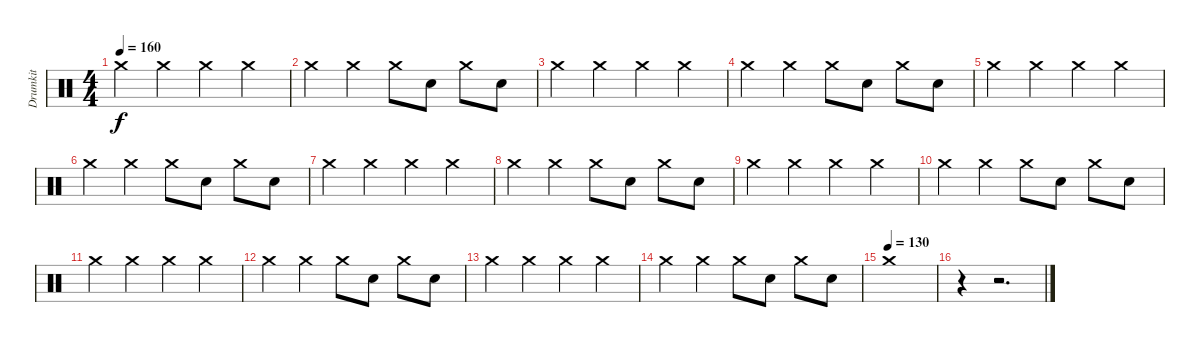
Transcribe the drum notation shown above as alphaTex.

\track ("Drumkit" "Drumkit") {instrument percussion}
\staff {score}
\articulation defaults
\ts (4 4)
\tempo 160
\clef neutral
\ks c "Crash medium (hit)".4{dy f} "Crash medium (hit)".4 "Crash medium (hit)".4 "Crash medium (hit)".4
|
"Crash medium (hit)".4 "Crash medium (hit)".4 "Crash medium (hit)".8 "Snare (hit) 2".8 "Crash medium (hit)".8 "Snare (hit) 2".8 |
"Crash medium (hit)".4 "Crash medium (hit)".4 "Crash medium (hit)".4 "Crash medium (hit)".4 |
"Crash medium (hit)".4 "Crash medium (hit)".4 "Crash medium (hit)".8 "Snare (hit) 2".8 "Crash medium (hit)".8 "Snare (hit) 2".8 |
"Crash medium (hit)".4 "Crash medium (hit)".4 "Crash medium (hit)".4 "Crash medium (hit)".4 |
"Crash medium (hit)".4 "Crash medium (hit)".4 "Crash medium (hit)".8 "Snare (hit) 2".8 "Crash medium (hit)".8 "Snare (hit) 2".8 |
"Crash medium (hit)".4 "Crash medium (hit)".4 "Crash medium (hit)".4 "Crash medium (hit)".4 |
"Crash medium (hit)".4 "Crash medium (hit)".4 "Crash medium (hit)".8 "Snare (hit) 2".8 "Crash medium (hit)".8 "Snare (hit) 2".8 |
"Crash medium (hit)".4 "Crash medium (hit)".4 "Crash medium (hit)".4 "Crash medium (hit)".4 |
"Crash medium (hit)".4 "Crash medium (hit)".4 "Crash medium (hit)".8 "Snare (hit) 2".8 "Crash medium (hit)".8 "Snare (hit) 2".8 |
"Crash medium (hit)".4 "Crash medium (hit)".4 "Crash medium (hit)".4 "Crash medium (hit)".4 |
"Crash medium (hit)".4 "Crash medium (hit)".4 "Crash medium (hit)".8 "Snare (hit) 2".8 "Crash medium (hit)".8 "Snare (hit) 2".8 |
"Crash medium (hit)".4 "Crash medium (hit)".4 "Crash medium (hit)".4 "Crash medium (hit)".4 |
"Crash medium (hit)".4 "Crash medium (hit)".4 "Crash medium (hit)".8 "Snare (hit) 2".8 "Crash medium (hit)".8 "Snare (hit) 2".8 |
\tempo (130)
"Crash medium (hit)".1 |
r.4 r.2{d}
